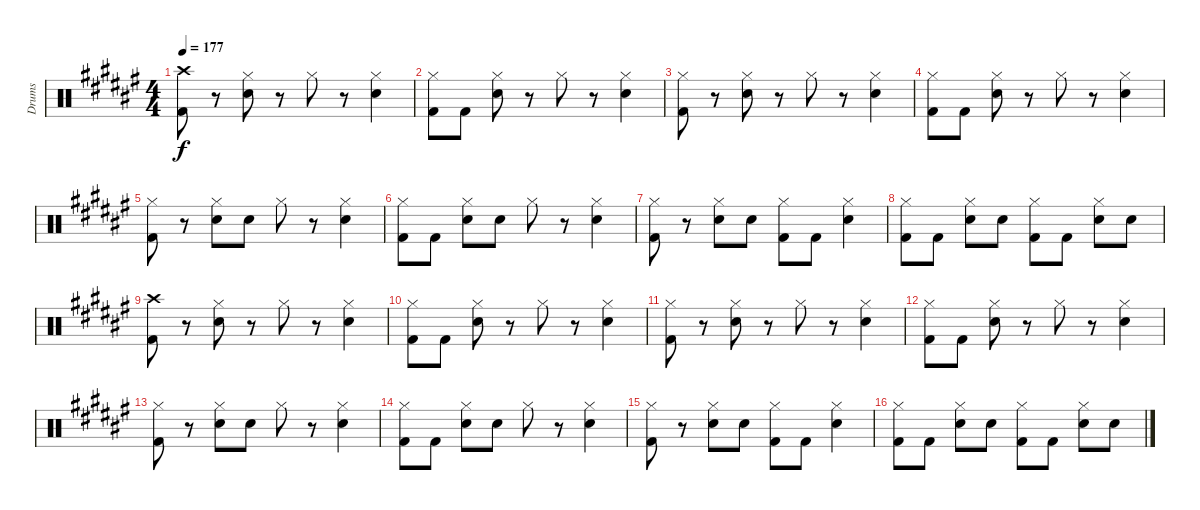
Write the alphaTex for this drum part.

\track ("Drums" "Drums") {instrument percussion}
\staff {score}
\articulation defaults
\ts (4 4)
\tempo 177
\clef neutral
\ks d#minor
("Crash high (hit)" "Kick (hit) 2").8{dy f} r.8 ("Hi-Hat (closed)" "Snare (hit) 2").8 r.8 "Hi-Hat (closed)".8 r.8 ("Hi-Hat (closed)" "Snare (hit) 2").4 |
("Hi-Hat (closed)" "Kick (hit) 2").8 "Kick (hit) 2".8 ("Hi-Hat (closed)" "Snare (hit) 2").8 r.8 "Hi-Hat (closed)".8 r.8 ("Hi-Hat (closed)" "Snare (hit) 2").4 |
("Hi-Hat (closed)" "Kick (hit) 2").8 r.8 ("Hi-Hat (closed)" "Snare (hit) 2").8 r.8 "Hi-Hat (closed)".8 r.8 ("Hi-Hat (closed)" "Snare (hit) 2").4 |
("Hi-Hat (closed)" "Kick (hit) 2").8 "Kick (hit) 2".8 ("Hi-Hat (closed)" "Snare (hit) 2").8 r.8 "Hi-Hat (closed)".8 r.8 ("Hi-Hat (closed)" "Snare (hit) 2").4 |
("Hi-Hat (closed)" "Kick (hit) 2").8 r.8 ("Hi-Hat (closed)" "Snare (hit) 2").8 "Snare (hit) 2".8 "Hi-Hat (closed)".8 r.8 ("Hi-Hat (closed)" "Snare (hit) 2").4 |
("Hi-Hat (closed)" "Kick (hit) 2").8 "Kick (hit) 2".8 ("Hi-Hat (closed)" "Snare (hit) 2").8 "Snare (hit) 2".8 "Hi-Hat (closed)".8 r.8 ("Hi-Hat (closed)" "Snare (hit) 2").4 |
("Hi-Hat (closed)" "Kick (hit) 2").8 r.8 ("Hi-Hat (closed)" "Snare (hit) 2").8 "Snare (hit) 2".8 ("Hi-Hat (closed)" "Kick (hit) 2").8 "Kick (hit) 2".8 ("Hi-Hat (closed)" "Snare (hit) 2").4 |
("Hi-Hat (closed)" "Kick (hit) 2").8 "Kick (hit) 2".8 ("Hi-Hat (closed)" "Snare (hit) 2").8 "Snare (hit) 2".8 ("Hi-Hat (closed)" "Kick (hit) 2").8 "Kick (hit) 2".8 ("Hi-Hat (closed)" "Snare (hit) 2").8 "Snare (hit) 2".8 |
("Crash high (hit)" "Kick (hit) 2").8 r.8 ("Hi-Hat (closed)" "Snare (hit) 2").8 r.8 "Hi-Hat (closed)".8 r.8 ("Hi-Hat (closed)" "Snare (hit) 2").4 |
("Hi-Hat (closed)" "Kick (hit) 2").8 "Kick (hit) 2".8 ("Hi-Hat (closed)" "Snare (hit) 2").8 r.8 "Hi-Hat (closed)".8 r.8 ("Hi-Hat (closed)" "Snare (hit) 2").4 |
("Hi-Hat (closed)" "Kick (hit) 2").8 r.8 ("Hi-Hat (closed)" "Snare (hit) 2").8 r.8 "Hi-Hat (closed)".8 r.8 ("Hi-Hat (closed)" "Snare (hit) 2").4 |
("Hi-Hat (closed)" "Kick (hit) 2").8 "Kick (hit) 2".8 ("Hi-Hat (closed)" "Snare (hit) 2").8 r.8 "Hi-Hat (closed)".8 r.8 ("Hi-Hat (closed)" "Snare (hit) 2").4 |
("Hi-Hat (closed)" "Kick (hit) 2").8 r.8 ("Hi-Hat (closed)" "Snare (hit) 2").8 "Snare (hit) 2".8 "Hi-Hat (closed)".8 r.8 ("Hi-Hat (closed)" "Snare (hit) 2").4 |
("Hi-Hat (closed)" "Kick (hit) 2").8 "Kick (hit) 2".8 ("Hi-Hat (closed)" "Snare (hit) 2").8 "Snare (hit) 2".8 "Hi-Hat (closed)".8 r.8 ("Hi-Hat (closed)" "Snare (hit) 2").4 |
("Hi-Hat (closed)" "Kick (hit) 2").8 r.8 ("Hi-Hat (closed)" "Snare (hit) 2").8 "Snare (hit) 2".8 ("Hi-Hat (closed)" "Kick (hit) 2").8 "Kick (hit) 2".8 ("Hi-Hat (closed)" "Snare (hit) 2").4 |
("Hi-Hat (closed)" "Kick (hit) 2").8 "Kick (hit) 2".8 ("Hi-Hat (closed)" "Snare (hit) 2").8 "Snare (hit) 2".8 ("Hi-Hat (closed)" "Kick (hit) 2").8 "Kick (hit) 2".8 ("Hi-Hat (closed)" "Snare (hit) 2").8 "Snare (hit) 2".8
